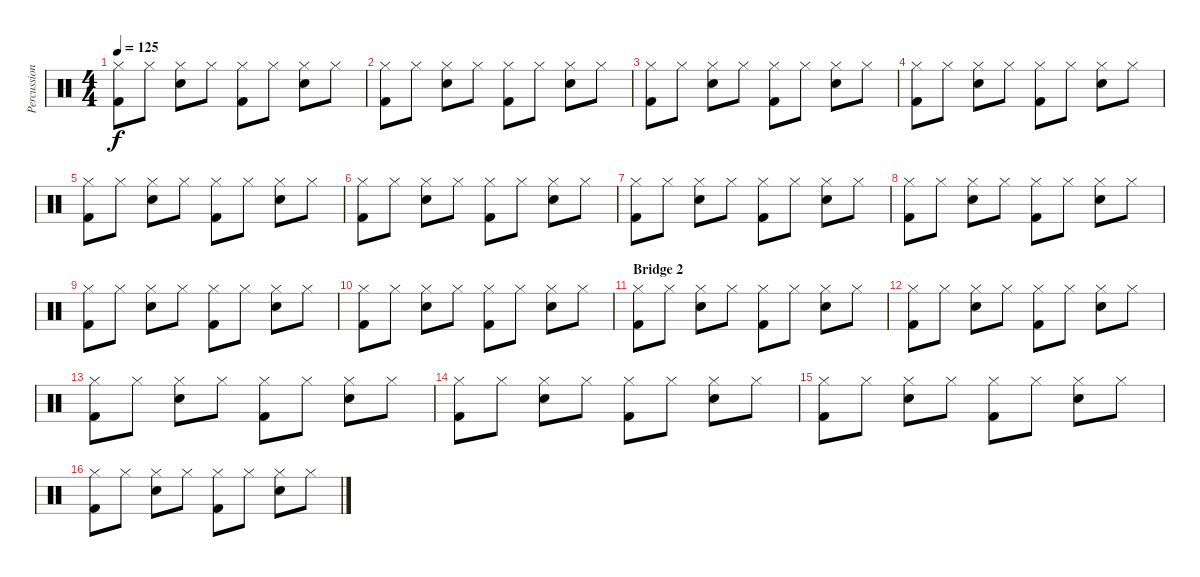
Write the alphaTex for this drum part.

\track ("Percussion" "Percussion") {instrument percussion}
\staff {score}
\articulation defaults
\ts (4 4)
\tempo 125
\clef neutral
\ks c
("Kick (hit) 2" "Hi-Hat (closed)").8{dy f} "Hi-Hat (closed)".8 ("Electric Snare (hit)" "Hi-Hat (closed)").8 "Hi-Hat (closed)".8 ("Kick (hit) 2" "Hi-Hat (closed)").8 "Hi-Hat (closed)".8 ("Electric Snare (hit)" "Hi-Hat (closed)").8 "Hi-Hat (closed)".8 |
("Kick (hit) 2" "Hi-Hat (closed)").8 "Hi-Hat (closed)".8 ("Electric Snare (hit)" "Hi-Hat (closed)").8 "Hi-Hat (closed)".8 ("Kick (hit) 2" "Hi-Hat (closed)").8 "Hi-Hat (closed)".8 ("Electric Snare (hit)" "Hi-Hat (closed)").8 "Hi-Hat (closed)".8 |
("Kick (hit) 2" "Hi-Hat (closed)").8 "Hi-Hat (closed)".8 ("Electric Snare (hit)" "Hi-Hat (closed)").8 "Hi-Hat (closed)".8 ("Kick (hit) 2" "Hi-Hat (closed)").8 "Hi-Hat (closed)".8 ("Electric Snare (hit)" "Hi-Hat (closed)").8 "Hi-Hat (closed)".8 |
("Kick (hit) 2" "Hi-Hat (closed)").8 "Hi-Hat (closed)".8 ("Electric Snare (hit)" "Hi-Hat (closed)").8 "Hi-Hat (closed)".8 ("Kick (hit) 2" "Hi-Hat (closed)").8 "Hi-Hat (closed)".8 ("Electric Snare (hit)" "Hi-Hat (closed)").8 "Hi-Hat (closed)".8 |
("Kick (hit) 2" "Hi-Hat (closed)").8 "Hi-Hat (closed)".8 ("Electric Snare (hit)" "Hi-Hat (closed)").8 "Hi-Hat (closed)".8 ("Kick (hit) 2" "Hi-Hat (closed)").8 "Hi-Hat (closed)".8 ("Electric Snare (hit)" "Hi-Hat (closed)").8 "Hi-Hat (closed)".8 |
("Kick (hit) 2" "Hi-Hat (closed)").8 "Hi-Hat (closed)".8 ("Electric Snare (hit)" "Hi-Hat (closed)").8 "Hi-Hat (closed)".8 ("Kick (hit) 2" "Hi-Hat (closed)").8 "Hi-Hat (closed)".8 ("Electric Snare (hit)" "Hi-Hat (closed)").8 "Hi-Hat (closed)".8 |
("Kick (hit) 2" "Hi-Hat (closed)").8 "Hi-Hat (closed)".8 ("Electric Snare (hit)" "Hi-Hat (closed)").8 "Hi-Hat (closed)".8 ("Kick (hit) 2" "Hi-Hat (closed)").8 "Hi-Hat (closed)".8 ("Electric Snare (hit)" "Hi-Hat (closed)").8 "Hi-Hat (closed)".8 |
("Kick (hit) 2" "Hi-Hat (closed)").8 "Hi-Hat (closed)".8 ("Electric Snare (hit)" "Hi-Hat (closed)").8 "Hi-Hat (closed)".8 ("Kick (hit) 2" "Hi-Hat (closed)").8 "Hi-Hat (closed)".8 ("Electric Snare (hit)" "Hi-Hat (closed)").8 "Hi-Hat (closed)".8 |
("Kick (hit) 2" "Hi-Hat (closed)").8 "Hi-Hat (closed)".8 ("Electric Snare (hit)" "Hi-Hat (closed)").8 "Hi-Hat (closed)".8 ("Kick (hit) 2" "Hi-Hat (closed)").8 "Hi-Hat (closed)".8 ("Electric Snare (hit)" "Hi-Hat (closed)").8 "Hi-Hat (closed)".8 |
("Kick (hit) 2" "Hi-Hat (closed)").8 "Hi-Hat (closed)".8 ("Electric Snare (hit)" "Hi-Hat (closed)").8 "Hi-Hat (closed)".8 ("Kick (hit) 2" "Hi-Hat (closed)").8 "Hi-Hat (closed)".8 ("Electric Snare (hit)" "Hi-Hat (closed)").8 "Hi-Hat (closed)".8 |
\section ("" "Bridge 2")
("Kick (hit) 2" "Hi-Hat (closed)").8 "Hi-Hat (closed)".8 ("Electric Snare (hit)" "Hi-Hat (closed)").8 "Hi-Hat (closed)".8 ("Kick (hit) 2" "Hi-Hat (closed)").8 "Hi-Hat (closed)".8 ("Electric Snare (hit)" "Hi-Hat (closed)").8 "Hi-Hat (closed)".8 |
("Kick (hit) 2" "Hi-Hat (closed)").8 "Hi-Hat (closed)".8 ("Electric Snare (hit)" "Hi-Hat (closed)").8 "Hi-Hat (closed)".8 ("Kick (hit) 2" "Hi-Hat (closed)").8 "Hi-Hat (closed)".8 ("Electric Snare (hit)" "Hi-Hat (closed)").8 "Hi-Hat (closed)".8 |
("Kick (hit) 2" "Hi-Hat (closed)").8 "Hi-Hat (closed)".8 ("Electric Snare (hit)" "Hi-Hat (closed)").8 "Hi-Hat (closed)".8 ("Kick (hit) 2" "Hi-Hat (closed)").8 "Hi-Hat (closed)".8 ("Electric Snare (hit)" "Hi-Hat (closed)").8 "Hi-Hat (closed)".8 |
("Kick (hit) 2" "Hi-Hat (closed)").8 "Hi-Hat (closed)".8 ("Electric Snare (hit)" "Hi-Hat (closed)").8 "Hi-Hat (closed)".8 ("Kick (hit) 2" "Hi-Hat (closed)").8 "Hi-Hat (closed)".8 ("Electric Snare (hit)" "Hi-Hat (closed)").8 "Hi-Hat (closed)".8 |
("Kick (hit) 2" "Hi-Hat (closed)").8 "Hi-Hat (closed)".8 ("Electric Snare (hit)" "Hi-Hat (closed)").8 "Hi-Hat (closed)".8 ("Kick (hit) 2" "Hi-Hat (closed)").8 "Hi-Hat (closed)".8 ("Electric Snare (hit)" "Hi-Hat (closed)").8 "Hi-Hat (closed)".8 |
("Kick (hit) 2" "Hi-Hat (closed)").8 "Hi-Hat (closed)".8 ("Electric Snare (hit)" "Hi-Hat (closed)").8 "Hi-Hat (closed)".8 ("Kick (hit) 2" "Hi-Hat (closed)").8 "Hi-Hat (closed)".8 ("Electric Snare (hit)" "Hi-Hat (closed)").8 "Hi-Hat (closed)".8
